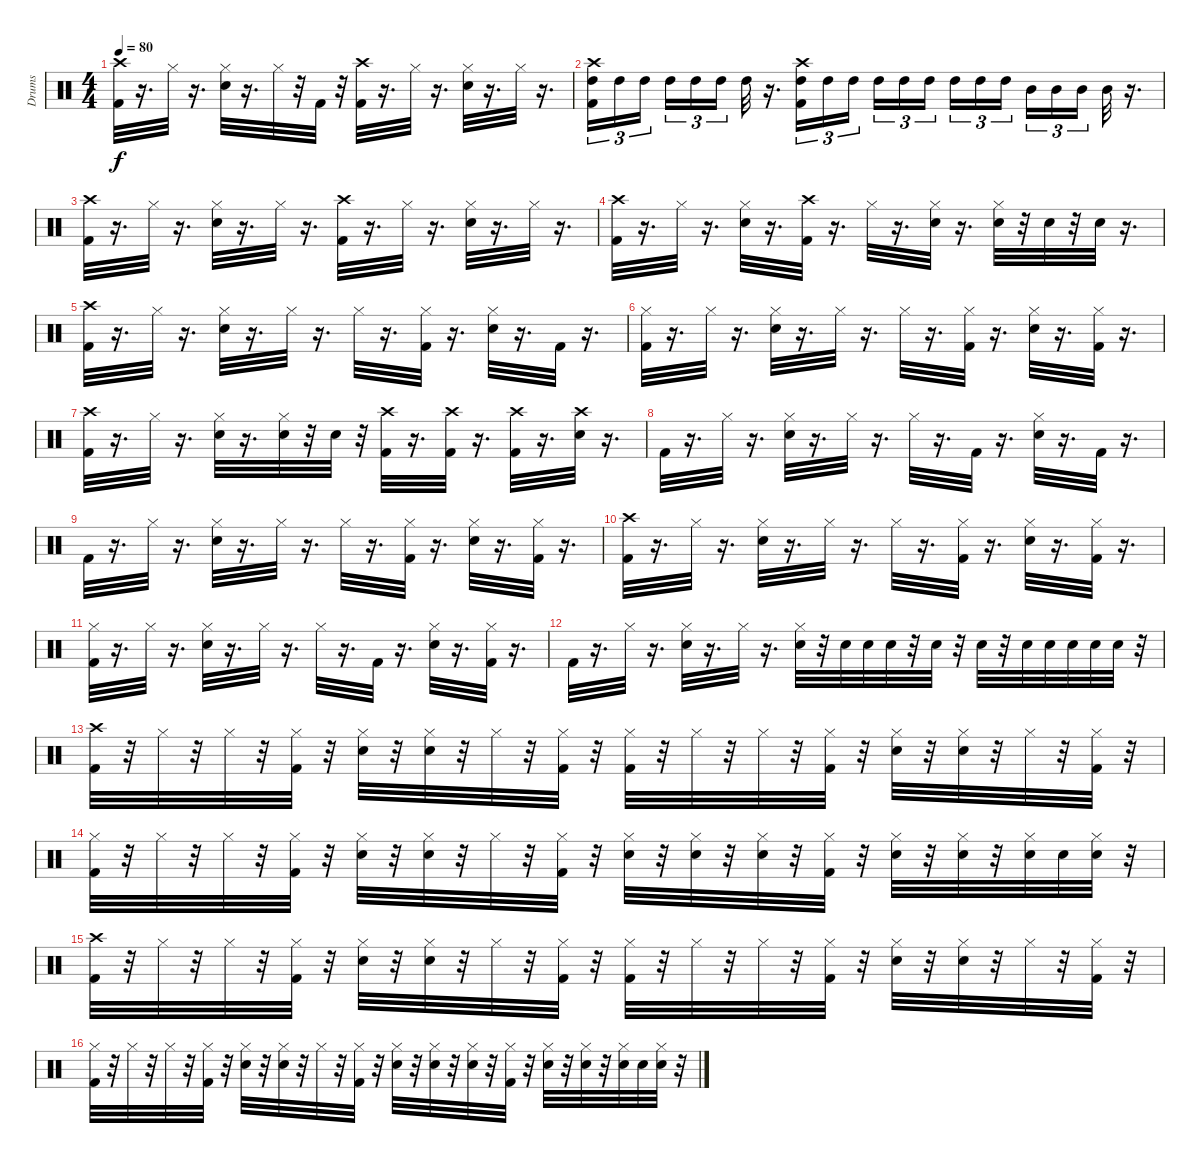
\track ("Drums" "Drums") {instrument percussion}
\staff {score}
\articulation defaults
\ts (4 4)
\tempo 80
\clef neutral
\ks c
("Crash high (hit)" "Kick (hit) 2").32{dy f} r.16{d} "Hi-Hat (closed)".32 r.16{d} ("Hi-Hat (closed)" "Snare (hit) 2").32 r.16{d} "Hi-Hat (closed)".32 r.32 "Kick (hit) 2".32 r.32 ("Crash high (hit)" "Kick (hit) 2").32 r.16{d} "Hi-Hat (closed)".32 r.16{d} ("Hi-Hat (closed)" "Snare (hit) 2").32 r.16{d} "Hi-Hat (closed)".32 r.16{d} |
("High Tom (hit)" "Kick (hit) 2" "Crash high (hit)").16{tu (3 2)} "High Tom (hit)".16{tu (3 2)} "High Tom (hit)".16{tu (3 2)} "High Tom (hit)".16{tu (3 2)} "High Tom (hit)".16{tu (3 2)} "High Tom (hit)".16{tu (3 2)} "High Tom (hit)".32 r.16{d} ("High Tom (hit)" "Kick (hit) 2" "Crash high (hit)").16{tu (3 2)} "High Tom (hit)".16{tu (3 2)} "High Tom (hit)".16{tu (3 2)} "High Tom (hit)".16{tu (3 2)} "High Tom (hit)".16{tu (3 2)} "High Tom (hit)".16{tu (3 2)} "High Tom (hit)".16{tu (3 2)} "High Tom (hit)".16{tu (3 2)} "High Tom (hit)".16{tu (3 2)} "Mid Tom (hit)".16{tu (3 2)} "Mid Tom (hit)".16{tu (3 2)} "Mid Tom (hit)".16{tu (3 2)} "Mid Tom (hit)".32 r.16{d} |
("Crash high (hit)" "Kick (hit) 2").32 r.16{d} "Hi-Hat (closed)".32 r.16{d} ("Hi-Hat (closed)" "Snare (hit) 2").32 r.16{d} "Hi-Hat (closed)".32 r.16{d} ("Crash high (hit)" "Kick (hit) 2").32 r.16{d} "Hi-Hat (closed)".32 r.16{d} ("Hi-Hat (closed)" "Snare (hit) 2").32 r.16{d} "Hi-Hat (closed)".32 r.16{d} |
("Crash high (hit)" "Kick (hit) 2").32 r.16{d} "Hi-Hat (closed)".32 r.16{d} ("Hi-Hat (closed)" "Snare (hit) 2").32 r.16{d} ("Crash high (hit)" "Kick (hit) 2").32 r.16{d} "Hi-Hat (closed)".32 r.16{d} ("Hi-Hat (closed)" "Snare (hit) 2").32 r.16{d} ("Hi-Hat (closed)" "Snare (hit) 2").32 r.32 "Snare (hit) 2".32 r.32 "Snare (hit) 2".32 r.16{d} |
("Crash high (hit)" "Kick (hit) 2").32 r.16{d} "Hi-Hat (closed)".32 r.16{d} ("Hi-Hat (closed)" "Snare (hit) 2").32 r.16{d} "Hi-Hat (closed)".32 r.16{d} "Hi-Hat (closed)".32 r.16{d} ("Hi-Hat (closed)" "Kick (hit) 2").32 r.16{d} ("Hi-Hat (closed)" "Snare (hit) 2").32 r.16{d} "Kick (hit) 2".32 r.16{d} |
("Hi-Hat (closed)" "Kick (hit) 2").32 r.16{d} "Hi-Hat (closed)".32 r.16{d} ("Hi-Hat (closed)" "Snare (hit) 2").32 r.16{d} "Hi-Hat (closed)".32 r.16{d} "Hi-Hat (closed)".32 r.16{d} ("Hi-Hat (closed)" "Kick (hit) 2").32 r.16{d} ("Hi-Hat (closed)" "Snare (hit) 2").32 r.16{d} ("Hi-Hat (closed)" "Kick (hit) 2").32 r.16{d} |
("Crash high (hit)" "Kick (hit) 2").32 r.16{d} "Hi-Hat (closed)".32 r.16{d} ("Hi-Hat (closed)" "Snare (hit) 2").32 r.16{d} ("Hi-Hat (closed)" "Snare (hit) 2").32 r.32 "Snare (hit) 2".32 r.32 ("Crash high (hit)" "Kick (hit) 2").32 r.16{d} ("Crash high (hit)" "Kick (hit) 2").32 r.16{d} ("Crash high (hit)" "Kick (hit) 2").32 r.16{d} ("Crash high (hit)" "Snare (hit) 2").32 r.16{d} |
"Kick (hit) 2".32 r.16{d} "Hi-Hat (closed)".32 r.16{d} ("Hi-Hat (closed)" "Snare (hit) 2").32 r.16{d} "Hi-Hat (closed)".32 r.16{d} "Hi-Hat (closed)".32 r.16{d} "Kick (hit) 2".32 r.16{d} ("Hi-Hat (closed)" "Snare (hit) 2").32 r.16{d} "Kick (hit) 2".32 r.16{d} |
"Kick (hit) 2".32 r.16{d} "Hi-Hat (closed)".32 r.16{d} ("Hi-Hat (closed)" "Snare (hit) 2").32 r.16{d} "Hi-Hat (closed)".32 r.16{d} "Hi-Hat (closed)".32 r.16{d} ("Hi-Hat (closed)" "Kick (hit) 2").32 r.16{d} ("Hi-Hat (closed)" "Snare (hit) 2").32 r.16{d} ("Hi-Hat (closed)" "Kick (hit) 2").32 r.16{d} |
("Crash high (hit)" "Kick (hit) 2").32 r.16{d} "Hi-Hat (closed)".32 r.16{d} ("Hi-Hat (closed)" "Snare (hit) 2").32 r.16{d} "Hi-Hat (closed)".32 r.16{d} "Hi-Hat (closed)".32 r.16{d} ("Hi-Hat (closed)" "Kick (hit) 2").32 r.16{d} ("Hi-Hat (closed)" "Snare (hit) 2").32 r.16{d} ("Hi-Hat (closed)" "Kick (hit) 2").32 r.16{d} |
("Hi-Hat (closed)" "Kick (hit) 2").32 r.16{d} "Hi-Hat (closed)".32 r.16{d} ("Hi-Hat (closed)" "Snare (hit) 2").32 r.16{d} "Hi-Hat (closed)".32 r.16{d} "Hi-Hat (closed)".32 r.16{d} "Kick (hit) 2".32 r.16{d} ("Hi-Hat (closed)" "Snare (hit) 2").32 r.16{d} ("Hi-Hat (closed)" "Kick (hit) 2").32 r.16{d} |
"Kick (hit) 2".32 r.16{d} "Hi-Hat (closed)".32 r.16{d} ("Hi-Hat (closed)" "Snare (hit) 2").32 r.16{d} "Hi-Hat (closed)".32 r.16{d} ("Snare (hit) 2" "Hi-Hat (closed)").32 r.32 "Snare (hit) 2".32 "Snare (hit) 2".32 "Snare (hit) 2".32 r.32 "Snare (hit) 2".32 r.32 "Snare (hit) 2".32 r.32 "Snare (hit) 2".32 "Snare (hit) 2".32 "Snare (hit) 2".32 "Snare (hit) 2".32 "Snare (hit) 2".32 r.32 |
("Crash high (hit)" "Kick (hit) 2").32 r.32 "Hi-Hat (closed)".32 r.32 "Hi-Hat (closed)".32 r.32 ("Hi-Hat (closed)" "Kick (hit) 2").32 r.32 ("Hi-Hat (closed)" "Snare (hit) 2").32 r.32 ("Hi-Hat (closed)" "Snare (hit) 2").32 r.32 "Hi-Hat (closed)".32 r.32 ("Hi-Hat (closed)" "Kick (hit) 2").32 r.32 ("Hi-Hat (closed)" "Kick (hit) 2").32 r.32 "Hi-Hat (closed)".32 r.32 "Hi-Hat (closed)".32 r.32 ("Hi-Hat (closed)" "Kick (hit) 2").32 r.32 ("Hi-Hat (closed)" "Snare (hit) 2").32 r.32 ("Hi-Hat (closed)" "Snare (hit) 2").32 r.32 "Hi-Hat (closed)".32 r.32 ("Hi-Hat (closed)" "Kick (hit) 2").32 r.32 |
("Kick (hit) 2" "Hi-Hat (closed)").32 r.32 "Hi-Hat (closed)".32 r.32 "Hi-Hat (closed)".32 r.32 ("Kick (hit) 2" "Hi-Hat (closed)").32 r.32 ("Snare (hit) 2" "Hi-Hat (closed)").32 r.32 ("Snare (hit) 2" "Hi-Hat (closed)").32 r.32 "Hi-Hat (closed)".32 r.32 ("Kick (hit) 2" "Hi-Hat (closed)").32 r.32 ("Snare (hit) 2" "Hi-Hat (closed)").32 r.32 ("Snare (hit) 2" "Hi-Hat (closed)").32 r.32 ("Snare (hit) 2" "Hi-Hat (closed)").32 r.32 ("Kick (hit) 2" "Hi-Hat (closed)").32 r.32 ("Snare (hit) 2" "Hi-Hat (closed)").32 r.32 ("Snare (hit) 2" "Hi-Hat (closed)").32 r.32 ("Snare (hit) 2" "Hi-Hat (closed)").32 "Snare (hit) 2".32 ("Snare (hit) 2" "Hi-Hat (closed)").32 r.32 |
("Crash high (hit)" "Kick (hit) 2").32 r.32 "Hi-Hat (closed)".32 r.32 "Hi-Hat (closed)".32 r.32 ("Hi-Hat (closed)" "Kick (hit) 2").32 r.32 ("Hi-Hat (closed)" "Snare (hit) 2").32 r.32 ("Hi-Hat (closed)" "Snare (hit) 2").32 r.32 "Hi-Hat (closed)".32 r.32 ("Hi-Hat (closed)" "Kick (hit) 2").32 r.32 ("Hi-Hat (closed)" "Kick (hit) 2").32 r.32 "Hi-Hat (closed)".32 r.32 "Hi-Hat (closed)".32 r.32 ("Hi-Hat (closed)" "Kick (hit) 2").32 r.32 ("Hi-Hat (closed)" "Snare (hit) 2").32 r.32 ("Hi-Hat (closed)" "Snare (hit) 2").32 r.32 "Hi-Hat (closed)".32 r.32 ("Hi-Hat (closed)" "Kick (hit) 2").32 r.32 |
("Kick (hit) 2" "Hi-Hat (closed)").32 r.32 "Hi-Hat (closed)".32 r.32 "Hi-Hat (closed)".32 r.32 ("Kick (hit) 2" "Hi-Hat (closed)").32 r.32 ("Snare (hit) 2" "Hi-Hat (closed)").32 r.32 ("Snare (hit) 2" "Hi-Hat (closed)").32 r.32 "Hi-Hat (closed)".32 r.32 ("Kick (hit) 2" "Hi-Hat (closed)").32 r.32 ("Snare (hit) 2" "Hi-Hat (closed)").32 r.32 ("Snare (hit) 2" "Hi-Hat (closed)").32 r.32 ("Snare (hit) 2" "Hi-Hat (closed)").32 r.32 ("Kick (hit) 2" "Hi-Hat (closed)").32 r.32 ("Snare (hit) 2" "Hi-Hat (closed)").32 r.32 ("Snare (hit) 2" "Hi-Hat (closed)").32 r.32 ("Snare (hit) 2" "Hi-Hat (closed)").32 "Snare (hit) 2".32 ("Snare (hit) 2" "Hi-Hat (closed)").32 r.32
